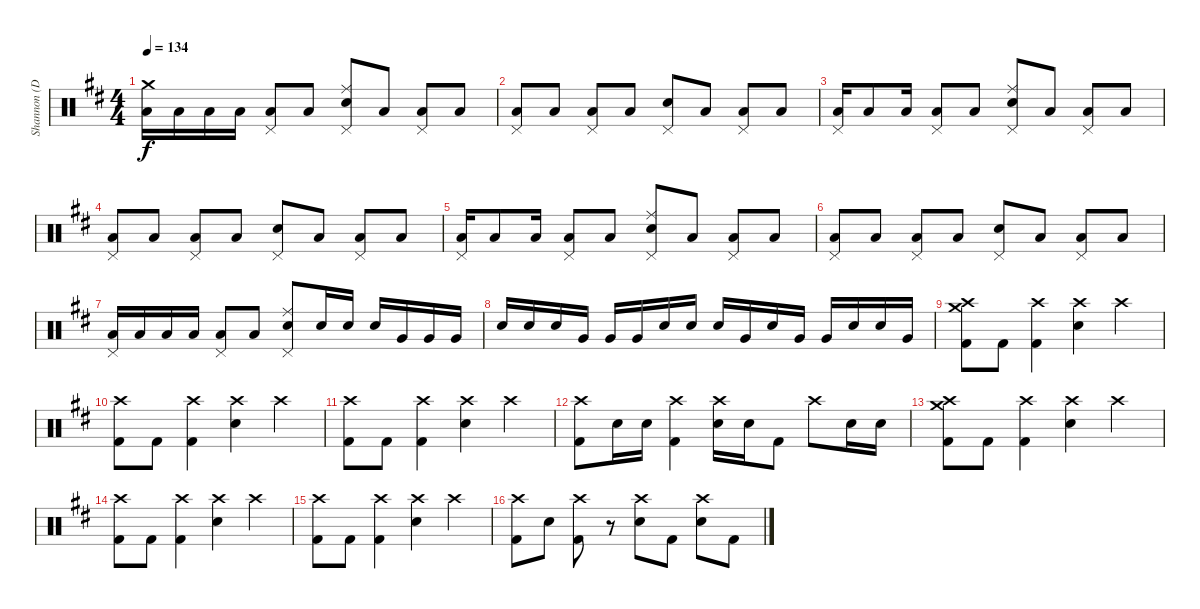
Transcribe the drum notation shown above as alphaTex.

\track ("Shannon (Drums)" "Shannon (D") {instrument percussion}
\staff {score}
\articulation defaults
\ts (4 4)
\tempo 134
\clef neutral
\ks d
("Crash medium (hit)" "Low Tom (hit)").16{dy f} "Low Tom (hit)".16 "Low Tom (hit)".16 "Low Tom (hit)".16 ("Pedal Hi-Hat (hit)" "Low Tom (hit)").8 "Low Tom (hit)".8 ("Pedal Hi-Hat (hit)" "Ride (middle)" "Electric Snare (hit)").8 "Low Tom (hit)".8 ("Pedal Hi-Hat (hit)" "Low Tom (hit)").8 "Low Tom (hit)".8 |
("Pedal Hi-Hat (hit)" "Low Tom (hit)").8 "Low Tom (hit)".8 ("Pedal Hi-Hat (hit)" "Low Tom (hit)").8 "Low Tom (hit)".8 ("Pedal Hi-Hat (hit)" "Electric Snare (hit)").8 "Low Tom (hit)".8 ("Pedal Hi-Hat (hit)" "Low Tom (hit)").8 "Low Tom (hit)".8 |
("Pedal Hi-Hat (hit)" "Low Tom (hit)").16 "Low Tom (hit)".8 "Low Tom (hit)".16 ("Pedal Hi-Hat (hit)" "Low Tom (hit)").8 "Low Tom (hit)".8 ("Pedal Hi-Hat (hit)" "Ride (middle)" "Electric Snare (hit)").8 "Low Tom (hit)".8 ("Pedal Hi-Hat (hit)" "Low Tom (hit)").8 "Low Tom (hit)".8 |
("Pedal Hi-Hat (hit)" "Low Tom (hit)").8 "Low Tom (hit)".8 ("Pedal Hi-Hat (hit)" "Low Tom (hit)").8 "Low Tom (hit)".8 ("Pedal Hi-Hat (hit)" "Electric Snare (hit)").8 "Low Tom (hit)".8 ("Pedal Hi-Hat (hit)" "Low Tom (hit)").8 "Low Tom (hit)".8 |
("Pedal Hi-Hat (hit)" "Low Tom (hit)").16 "Low Tom (hit)".8 "Low Tom (hit)".16 ("Pedal Hi-Hat (hit)" "Low Tom (hit)").8 "Low Tom (hit)".8 ("Pedal Hi-Hat (hit)" "Ride (middle)" "Electric Snare (hit)").8 "Low Tom (hit)".8 ("Pedal Hi-Hat (hit)" "Low Tom (hit)").8 "Low Tom (hit)".8 |
("Pedal Hi-Hat (hit)" "Low Tom (hit)").8 "Low Tom (hit)".8 ("Pedal Hi-Hat (hit)" "Low Tom (hit)").8 "Low Tom (hit)".8 ("Pedal Hi-Hat (hit)" "Electric Snare (hit)").8 "Low Tom (hit)".8 ("Pedal Hi-Hat (hit)" "Low Tom (hit)").8 "Low Tom (hit)".8 |
("Pedal Hi-Hat (hit)" "Low Tom (hit)").16 "Low Tom (hit)".16 "Low Tom (hit)".16 "Low Tom (hit)".16 ("Pedal Hi-Hat (hit)" "Low Tom (hit)").8 "Low Tom (hit)".8 ("Pedal Hi-Hat (hit)" "Ride (middle)" "Electric Snare (hit)").8 "Electric Snare (hit)".16 "Electric Snare (hit)".16 "Electric Snare (hit)".16 "Very Low Tom (hit)".16 "Very Low Tom (hit)".16 "Very Low Tom (hit)".16 |
"Electric Snare (hit)".16 "Electric Snare (hit)".16 "Electric Snare (hit)".16 "Very Low Tom (hit)".16 "Very Low Tom (hit)".16 "Very Low Tom (hit)".16 "Electric Snare (hit)".16 "Electric Snare (hit)".16 "Electric Snare (hit)".16 "Very Low Tom (hit)".16 "Electric Snare (hit)".16 "Very Low Tom (hit)".16 "Very Low Tom (hit)".16 "Electric Snare (hit)".16 "Electric Snare (hit)".16 "Very Low Tom (hit)".16 |
("Crash high (hit)" "Crash medium (hit)" "Kick (hit) 2").8 "Kick (hit) 2".8 ("Crash high (hit)" "Kick (hit) 2").4 ("Crash high (hit)" "Electric Snare (hit)").4 "Crash high (hit)".4 |
("Crash high (hit)" "Kick (hit) 2").8 "Kick (hit) 2".8 ("Crash high (hit)" "Kick (hit) 2").4 ("Crash high (hit)" "Electric Snare (hit)").4 "Crash high (hit)".4 |
("Crash high (hit)" "Kick (hit) 2").8 "Kick (hit) 2".8 ("Crash high (hit)" "Kick (hit) 2").4 ("Crash high (hit)" "Electric Snare (hit)").4 "Crash high (hit)".4 |
("Crash high (hit)" "Kick (hit) 2").8 "Electric Snare (hit)".16 "Electric Snare (hit)".16 ("Crash high (hit)" "Kick (hit) 2").4 ("Crash high (hit)" "Electric Snare (hit)").16 "Electric Snare (hit)".16 "Kick (hit) 2".8 "Crash high (hit)".8 "Electric Snare (hit)".16 "Electric Snare (hit)".16 |
("Crash high (hit)" "Crash medium (hit)" "Kick (hit) 2").8 "Kick (hit) 2".8 ("Crash high (hit)" "Kick (hit) 2").4 ("Crash high (hit)" "Electric Snare (hit)").4 "Crash high (hit)".4 |
("Crash high (hit)" "Kick (hit) 2").8 "Kick (hit) 2".8 ("Crash high (hit)" "Kick (hit) 2").4 ("Crash high (hit)" "Electric Snare (hit)").4 "Crash high (hit)".4 |
("Crash high (hit)" "Kick (hit) 2").8 "Kick (hit) 2".8 ("Crash high (hit)" "Kick (hit) 2").4 ("Crash high (hit)" "Electric Snare (hit)").4 "Crash high (hit)".4 |
("Crash high (hit)" "Kick (hit) 2").8 "Electric Snare (hit)".8 ("Crash high (hit)" "Kick (hit) 2").8 r.8 ("Crash high (hit)" "Electric Snare (hit)").8 "Kick (hit) 2".8 ("Crash high (hit)" "Electric Snare (hit)").8 "Kick (hit) 2".8
